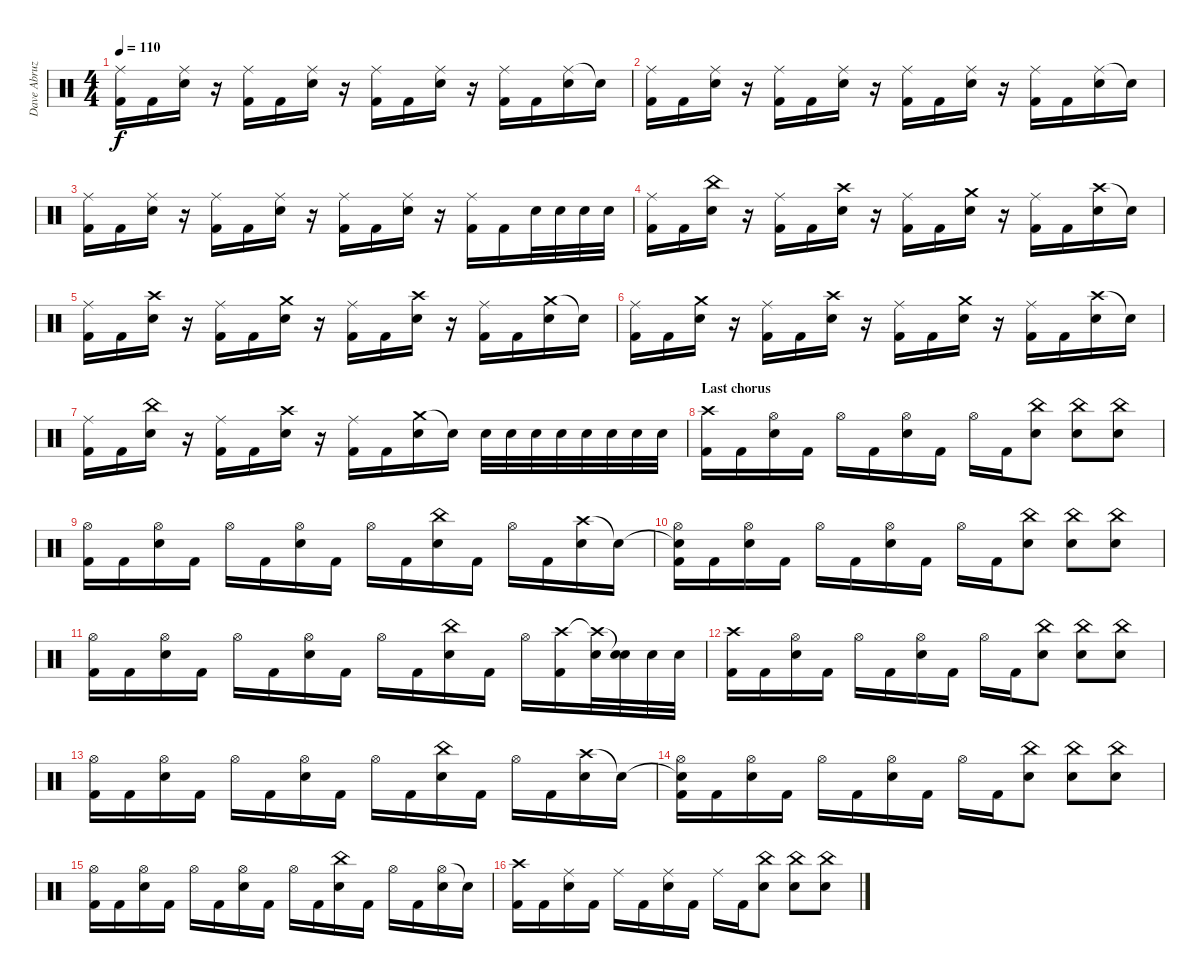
\track ("Dave Abruzzese" "Dave Abruz") {instrument percussion}
\staff {score}
\articulation defaults
\ts (4 4)
\tempo 110
\clef neutral
\ks c
("Ride (middle)" "Kick (hit) 2").16{dy f} "Kick (hit) 2".16 ("Ride (middle)" "Electric Snare (hit)").16 r.16 ("Ride (middle)" "Kick (hit) 2").16 "Kick (hit) 2".16 ("Ride (middle)" "Electric Snare (hit)").16 r.16 ("Ride (middle)" "Kick (hit) 2").16 "Kick (hit) 2".16 ("Ride (middle)" "Electric Snare (hit)").16 r.16 ("Ride (middle)" "Kick (hit) 2").16 "Kick (hit) 2".16 ("Ride (middle)" "Electric Snare (hit)").16 "Snare (hit)"{t}.16 |
("Ride (middle)" "Kick (hit) 2").16 "Kick (hit) 2".16 ("Ride (middle)" "Electric Snare (hit)").16 r.16 ("Ride (middle)" "Kick (hit) 2").16 "Kick (hit) 2".16 ("Ride (middle)" "Electric Snare (hit)").16 r.16 ("Ride (middle)" "Kick (hit) 2").16 "Kick (hit) 2".16 ("Ride (middle)" "Electric Snare (hit)").16 r.16 ("Ride (middle)" "Kick (hit) 2").16 "Kick (hit) 2".16 ("Ride (middle)" "Electric Snare (hit)").16 "Snare (hit)"{t}.16 |
("Ride (middle)" "Kick (hit) 2").16 "Kick (hit) 2".16 ("Ride (middle)" "Electric Snare (hit)").16 r.16 ("Ride (middle)" "Kick (hit) 2").16 "Kick (hit) 2".16 ("Ride (middle)" "Electric Snare (hit)").16 r.16 ("Ride (middle)" "Kick (hit) 2").16 "Kick (hit) 2".16 ("Ride (middle)" "Electric Snare (hit)").16 r.16 ("Ride (middle)" "Kick (hit) 2").16 "Kick (hit) 2".16 "Electric Snare (hit)".32 "Electric Snare (hit)".32 "Electric Snare (hit)".32 "Electric Snare (hit)".32 |
("Ride (middle)" "Kick (hit) 2").16 "Kick (hit) 2".16 ("China (hit)" "Electric Snare (hit)").16 r.16 ("Ride (middle)" "Kick (hit) 2").16 "Kick (hit) 2".16 ("Crash high (hit)" "Electric Snare (hit)").16 r.16 ("Ride (middle)" "Kick (hit) 2").16 "Kick (hit) 2".16 ("Crash medium (hit)" "Electric Snare (hit)").16 r.16 ("Ride (middle)" "Kick (hit) 2").16 "Kick (hit) 2".16 ("Crash high (hit)" "Electric Snare (hit)").16 "Snare (hit)"{t}.16 |
("Ride (middle)" "Kick (hit) 2").16 "Kick (hit) 2".16 ("Crash high (hit)" "Electric Snare (hit)").16 r.16 ("Ride (middle)" "Kick (hit) 2").16 "Kick (hit) 2".16 ("Crash medium (hit)" "Electric Snare (hit)").16 r.16 ("Ride (middle)" "Kick (hit) 2").16 "Kick (hit) 2".16 ("Crash high (hit)" "Electric Snare (hit)").16 r.16 ("Ride (middle)" "Kick (hit) 2").16 "Kick (hit) 2".16 ("Crash medium (hit)" "Electric Snare (hit)").16 "Snare (hit)"{t}.16 |
("Ride (middle)" "Kick (hit) 2").16 "Kick (hit) 2".16 ("Crash medium (hit)" "Electric Snare (hit)").16 r.16 ("Ride (middle)" "Kick (hit) 2").16 "Kick (hit) 2".16 ("Crash high (hit)" "Electric Snare (hit)").16 r.16 ("Ride (middle)" "Kick (hit) 2").16 "Kick (hit) 2".16 ("Crash medium (hit)" "Electric Snare (hit)").16 r.16 ("Ride (middle)" "Kick (hit) 2").16 "Kick (hit) 2".16 ("Crash high (hit)" "Electric Snare (hit)").16 "Snare (hit)"{t}.16 |
("Ride (middle)" "Kick (hit) 2").16 "Kick (hit) 2".16 ("China (hit)" "Electric Snare (hit)").16 r.16 ("Ride (middle)" "Kick (hit) 2").16 "Kick (hit) 2".16 ("Crash high (hit)" "Electric Snare (hit)").16 r.16 ("Ride (middle)" "Kick (hit) 2").16 "Kick (hit) 2".16 ("Crash medium (hit)" "Electric Snare (hit)").16 "Snare (hit)"{t}.16 "Electric Snare (hit)".32 "Electric Snare (hit)".32 "Electric Snare (hit)".32 "Electric Snare (hit)".32 "Electric Snare (hit)".32 "Electric Snare (hit)".32 "Electric Snare (hit)".32 "Electric Snare (hit)".32 |
\section ("" "Last chorus")
("Crash high (hit)" "Kick (hit) 2").16 "Kick (hit) 2".16 ("Hi-Hat (open)" "Electric Snare (hit)").16 "Kick (hit) 2".16 "Hi-Hat (open)".16 "Kick (hit) 2".16 ("Hi-Hat (open)" "Electric Snare (hit)").16 "Kick (hit) 2".16 "Hi-Hat (open)".16 "Kick (hit) 2".16 ("China (hit)" "Electric Snare (hit)").8 ("China (hit)" "Electric Snare (hit)").8 ("China (hit)" "Electric Snare (hit)").8 |
("Hi-Hat (open)" "Kick (hit) 2").16 "Kick (hit) 2".16 ("Hi-Hat (open)" "Electric Snare (hit)").16 "Kick (hit) 2".16 "Hi-Hat (open)".16 "Kick (hit) 2".16 ("Hi-Hat (open)" "Electric Snare (hit)").16 "Kick (hit) 2".16 "Hi-Hat (open)".16 "Kick (hit) 2".16 ("China (hit)" "Electric Snare (hit)").16 "Kick (hit) 2".16 "Hi-Hat (open)".16 "Kick (hit) 2".16 ("Crash high (hit)" "Electric Snare (hit)").16 "Snare (hit)"{t}.16 |
("Snare (hit)"{t} "Hi-Hat (open)" "Kick (hit) 2").16 "Kick (hit) 2".16 ("Hi-Hat (open)" "Electric Snare (hit)").16 "Kick (hit) 2".16 "Hi-Hat (open)".16 "Kick (hit) 2".16 ("Hi-Hat (open)" "Electric Snare (hit)").16 "Kick (hit) 2".16 "Hi-Hat (open)".16 "Kick (hit) 2".16 ("China (hit)" "Electric Snare (hit)").8 ("China (hit)" "Electric Snare (hit)").8 ("China (hit)" "Electric Snare (hit)").8 |
("Hi-Hat (open)" "Kick (hit) 2").16 "Kick (hit) 2".16 ("Hi-Hat (open)" "Electric Snare (hit)").16 "Kick (hit) 2".16 "Hi-Hat (open)".16 "Kick (hit) 2".16 ("Hi-Hat (open)" "Electric Snare (hit)").16 "Kick (hit) 2".16 "Hi-Hat (open)".16 "Kick (hit) 2".16 ("China (hit)" "Electric Snare (hit)").16 "Kick (hit) 2".16 "Hi-Hat (open)".16 ("Crash high (hit)" "Kick (hit) 2").16 ("Crash high (hit)"{t} "Electric Snare (hit)").32 ("Snare (hit)"{t} "Electric Snare (hit)").32 "Electric Snare (hit)".32 "Electric Snare (hit)".32 |
("Crash high (hit)" "Kick (hit) 2").16 "Kick (hit) 2".16 ("Hi-Hat (open)" "Electric Snare (hit)").16 "Kick (hit) 2".16 "Hi-Hat (open)".16 "Kick (hit) 2".16 ("Hi-Hat (open)" "Electric Snare (hit)").16 "Kick (hit) 2".16 "Hi-Hat (open)".16 "Kick (hit) 2".16 ("China (hit)" "Electric Snare (hit)").8 ("China (hit)" "Electric Snare (hit)").8 ("China (hit)" "Electric Snare (hit)").8 |
("Hi-Hat (open)" "Kick (hit) 2").16 "Kick (hit) 2".16 ("Hi-Hat (open)" "Electric Snare (hit)").16 "Kick (hit) 2".16 "Hi-Hat (open)".16 "Kick (hit) 2".16 ("Hi-Hat (open)" "Electric Snare (hit)").16 "Kick (hit) 2".16 "Hi-Hat (open)".16 "Kick (hit) 2".16 ("China (hit)" "Electric Snare (hit)").16 "Kick (hit) 2".16 "Hi-Hat (open)".16 "Kick (hit) 2".16 ("Crash high (hit)" "Electric Snare (hit)").16 "Snare (hit)"{t}.16 |
("Snare (hit)"{t} "Hi-Hat (open)" "Kick (hit) 2").16 "Kick (hit) 2".16 ("Hi-Hat (open)" "Electric Snare (hit)").16 "Kick (hit) 2".16 "Hi-Hat (open)".16 "Kick (hit) 2".16 ("Hi-Hat (open)" "Electric Snare (hit)").16 "Kick (hit) 2".16 "Hi-Hat (open)".16 "Kick (hit) 2".16 ("China (hit)" "Electric Snare (hit)").8 ("China (hit)" "Electric Snare (hit)").8 ("China (hit)" "Electric Snare (hit)").8 |
("Hi-Hat (open)" "Kick (hit) 2").16 "Kick (hit) 2".16 ("Hi-Hat (open)" "Electric Snare (hit)").16 "Kick (hit) 2".16 "Hi-Hat (open)".16 "Kick (hit) 2".16 ("Hi-Hat (open)" "Electric Snare (hit)").16 "Kick (hit) 2".16 "Hi-Hat (open)".16 "Kick (hit) 2".16 ("China (hit)" "Electric Snare (hit)").16 "Kick (hit) 2".16 "Hi-Hat (open)".16 "Kick (hit) 2".16 ("Hi-Hat (open)" "Electric Snare (hit)").16 "Snare (hit)"{t}.16 |
("Crash high (hit)" "Kick (hit) 2").16 "Kick (hit) 2".16 ("Ride (middle)" "Electric Snare (hit)").16 "Kick (hit) 2".16 "Ride (middle)".16 "Kick (hit) 2".16 ("Ride (middle)" "Electric Snare (hit)").16 "Kick (hit) 2".16 "Ride (middle)".16 "Kick (hit) 2".16 ("China (hit)" "Electric Snare (hit)").8 ("China (hit)" "Electric Snare (hit)").8 ("China (hit)" "Electric Snare (hit)").8
